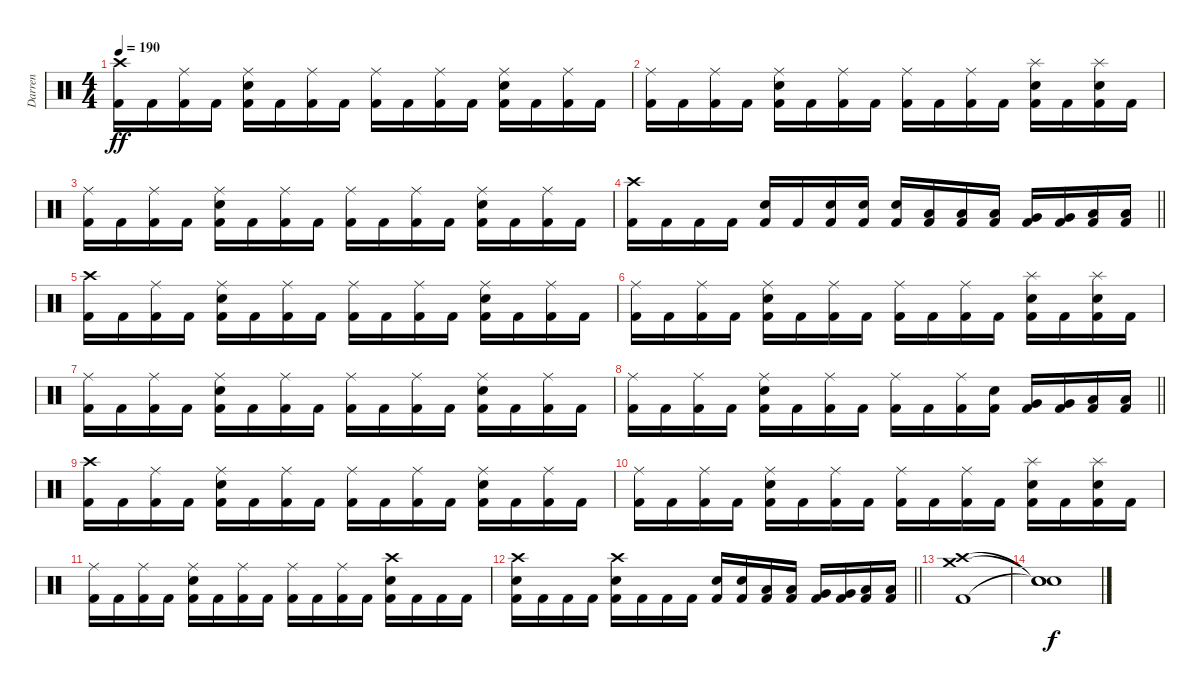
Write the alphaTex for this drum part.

\track ("Darren" "Darren") {instrument percussion}
\staff {score}
\articulation defaults
\ts (4 4)
\tempo 190
\clef neutral
\ks c
("Crash high (hit)" "Kick (hit) 2").16{dy ff} "Kick (hit) 2".16 ("Ride (middle)" "Kick (hit) 2").16 "Kick (hit) 2".16 ("Ride (middle)" "Electric Snare (hit)" "Kick (hit) 2").16 "Kick (hit) 2".16 ("Ride (middle)" "Kick (hit) 2").16 "Kick (hit) 2".16 ("Ride (middle)" "Kick (hit) 2").16 "Kick (hit) 2".16 ("Ride (middle)" "Kick (hit) 2").16 "Kick (hit) 2".16 ("Ride (middle)" "Electric Snare (hit)" "Kick (hit) 2").16 "Kick (hit) 2".16 ("Ride (middle)" "Kick (hit) 2").16 "Kick (hit) 2".16 |
("Ride (middle)" "Kick (hit) 2").16 "Kick (hit) 2".16 ("Ride (middle)" "Kick (hit) 2").16 "Kick (hit) 2".16 ("Ride (middle)" "Electric Snare (hit)" "Kick (hit) 2").16 "Kick (hit) 2".16 ("Ride (middle)" "Kick (hit) 2").16 "Kick (hit) 2".16 ("Ride (middle)" "Kick (hit) 2").16 "Kick (hit) 2".16 ("Ride (middle)" "Kick (hit) 2").16 "Kick (hit) 2".16 ("Splash (hit)" "Electric Snare (hit)" "Kick (hit) 2").16 "Kick (hit) 2".16 ("Splash (hit)" "Electric Snare (hit)" "Kick (hit) 2").16 "Kick (hit) 2".16 |
("Ride (middle)" "Kick (hit) 2").16 "Kick (hit) 2".16 ("Ride (middle)" "Kick (hit) 2").16 "Kick (hit) 2".16 ("Ride (middle)" "Electric Snare (hit)" "Kick (hit) 2").16 "Kick (hit) 2".16 ("Ride (middle)" "Kick (hit) 2").16 "Kick (hit) 2".16 ("Ride (middle)" "Kick (hit) 2").16 "Kick (hit) 2".16 ("Ride (middle)" "Kick (hit) 2").16 "Kick (hit) 2".16 ("Ride (middle)" "Electric Snare (hit)" "Kick (hit) 2").16 "Kick (hit) 2".16 ("Ride (middle)" "Kick (hit) 2").16 "Kick (hit) 2".16 |
\barLineRight lightlight
("Crash high (hit)" "Kick (hit) 2").16 "Kick (hit) 2".16 "Kick (hit) 2".16 "Kick (hit) 2".16 ("Electric Snare (hit)" "Kick (hit) 2").16 "Kick (hit) 2".16 ("Electric Snare (hit)" "Kick (hit) 2").16 ("Electric Snare (hit)" "Kick (hit) 2").16 ("Electric Snare (hit)" "Kick (hit) 2").16 ("Low Tom (hit)" "Kick (hit) 2").16 ("Low Tom (hit)" "Kick (hit) 2").16 ("Low Tom (hit)" "Kick (hit) 2").16 ("Very Low Tom (hit)" "Kick (hit) 2").16 ("Very Low Tom (hit)" "Kick (hit) 2").16 ("Low Floor Tom (hit)" "Kick (hit) 2").16 ("Low Floor Tom (hit)" "Kick (hit) 2").16 |
("Crash high (hit)" "Kick (hit) 2").16 "Kick (hit) 2".16 ("Ride (middle)" "Kick (hit) 2").16 "Kick (hit) 2".16 ("Ride (middle)" "Electric Snare (hit)" "Kick (hit) 2").16 "Kick (hit) 2".16 ("Ride (middle)" "Kick (hit) 2").16 "Kick (hit) 2".16 ("Ride (middle)" "Kick (hit) 2").16 "Kick (hit) 2".16 ("Ride (middle)" "Kick (hit) 2").16 "Kick (hit) 2".16 ("Ride (middle)" "Electric Snare (hit)" "Kick (hit) 2").16 "Kick (hit) 2".16 ("Ride (middle)" "Kick (hit) 2").16 "Kick (hit) 2".16 |
("Ride (middle)" "Kick (hit) 2").16 "Kick (hit) 2".16 ("Ride (middle)" "Kick (hit) 2").16 "Kick (hit) 2".16 ("Ride (middle)" "Electric Snare (hit)" "Kick (hit) 2").16 "Kick (hit) 2".16 ("Ride (middle)" "Kick (hit) 2").16 "Kick (hit) 2".16 ("Ride (middle)" "Kick (hit) 2").16 "Kick (hit) 2".16 ("Ride (middle)" "Kick (hit) 2").16 "Kick (hit) 2".16 ("Splash (hit)" "Electric Snare (hit)" "Kick (hit) 2").16 "Kick (hit) 2".16 ("Splash (hit)" "Electric Snare (hit)" "Kick (hit) 2").16 "Kick (hit) 2".16 |
("Ride (middle)" "Kick (hit) 2").16 "Kick (hit) 2".16 ("Ride (middle)" "Kick (hit) 2").16 "Kick (hit) 2".16 ("Ride (middle)" "Electric Snare (hit)" "Kick (hit) 2").16 "Kick (hit) 2".16 ("Ride (middle)" "Kick (hit) 2").16 "Kick (hit) 2".16 ("Ride (middle)" "Kick (hit) 2").16 "Kick (hit) 2".16 ("Ride (middle)" "Kick (hit) 2").16 "Kick (hit) 2".16 ("Ride (middle)" "Electric Snare (hit)" "Kick (hit) 2").16 "Kick (hit) 2".16 ("Ride (middle)" "Kick (hit) 2").16 "Kick (hit) 2".16 |
\barLineRight lightlight
("Ride (middle)" "Kick (hit) 2").16 "Kick (hit) 2".16 ("Ride (middle)" "Kick (hit) 2").16 "Kick (hit) 2".16 ("Ride (middle)" "Electric Snare (hit)" "Kick (hit) 2").16 "Kick (hit) 2".16 ("Ride (middle)" "Kick (hit) 2").16 "Kick (hit) 2".16 ("Ride (middle)" "Kick (hit) 2").16 "Kick (hit) 2".16 ("Ride (middle)" "Kick (hit) 2").16 ("Electric Snare (hit)" "Kick (hit) 2").16 ("Very Low Tom (hit)" "Kick (hit) 2").16 ("Very Low Tom (hit)" "Kick (hit) 2").16 ("Low Floor Tom (hit)" "Kick (hit) 2").16 ("Low Floor Tom (hit)" "Kick (hit) 2").16 |
("Crash high (hit)" "Kick (hit) 2").16 "Kick (hit) 2".16 ("Ride (middle)" "Kick (hit) 2").16 "Kick (hit) 2".16 ("Ride (middle)" "Electric Snare (hit)" "Kick (hit) 2").16 "Kick (hit) 2".16 ("Ride (middle)" "Kick (hit) 2").16 "Kick (hit) 2".16 ("Ride (middle)" "Kick (hit) 2").16 "Kick (hit) 2".16 ("Ride (middle)" "Kick (hit) 2").16 "Kick (hit) 2".16 ("Ride (middle)" "Electric Snare (hit)" "Kick (hit) 2").16 "Kick (hit) 2".16 ("Ride (middle)" "Kick (hit) 2").16 "Kick (hit) 2".16 |
("Ride (middle)" "Kick (hit) 2").16 "Kick (hit) 2".16 ("Ride (middle)" "Kick (hit) 2").16 "Kick (hit) 2".16 ("Ride (middle)" "Electric Snare (hit)" "Kick (hit) 2").16 "Kick (hit) 2".16 ("Ride (middle)" "Kick (hit) 2").16 "Kick (hit) 2".16 ("Ride (middle)" "Kick (hit) 2").16 "Kick (hit) 2".16 ("Ride (middle)" "Kick (hit) 2").16 "Kick (hit) 2".16 ("Splash (hit)" "Electric Snare (hit)" "Kick (hit) 2").16 "Kick (hit) 2".16 ("Splash (hit)" "Electric Snare (hit)" "Kick (hit) 2").16 "Kick (hit) 2".16 |
("Ride (middle)" "Kick (hit) 2").16 "Kick (hit) 2".16 ("Ride (middle)" "Kick (hit) 2").16 "Kick (hit) 2".16 ("Ride (middle)" "Electric Snare (hit)" "Kick (hit) 2").16 "Kick (hit) 2".16 ("Ride (middle)" "Kick (hit) 2").16 "Kick (hit) 2".16 ("Ride (middle)" "Kick (hit) 2").16 "Kick (hit) 2".16 ("Ride (middle)" "Kick (hit) 2").16 "Kick (hit) 2".16 ("Crash high (hit)" "Electric Snare (hit)" "Kick (hit) 2").16 "Kick (hit) 2".16 "Kick (hit) 2".16 "Kick (hit) 2".16 |
\barLineRight lightlight
("Crash high (hit)" "Electric Snare (hit)" "Kick (hit) 2").16 "Kick (hit) 2".16 "Kick (hit) 2".16 "Kick (hit) 2".16 ("Crash high (hit)" "Electric Snare (hit)" "Kick (hit) 2").16 "Kick (hit) 2".16 "Kick (hit) 2".16 "Kick (hit) 2".16 ("Electric Snare (hit)" "Kick (hit) 2").16 ("Electric Snare (hit)" "Kick (hit) 2").16 ("Low Tom (hit)" "Kick (hit) 2").16 ("Low Tom (hit)" "Kick (hit) 2").16 ("Very Low Tom (hit)" "Kick (hit) 2").16 ("Very Low Tom (hit)" "Kick (hit) 2").16 ("Low Floor Tom (hit)" "Kick (hit) 2").16 ("Low Floor Tom (hit)" "Kick (hit) 2").16 |
("Crash medium (hit)" "Crash high (hit)" "Kick (hit) 2").1 |
("Snare (hit)"{t} "Snare (hit)"{t} "Snare (hit)"{t}).1{dy f}
